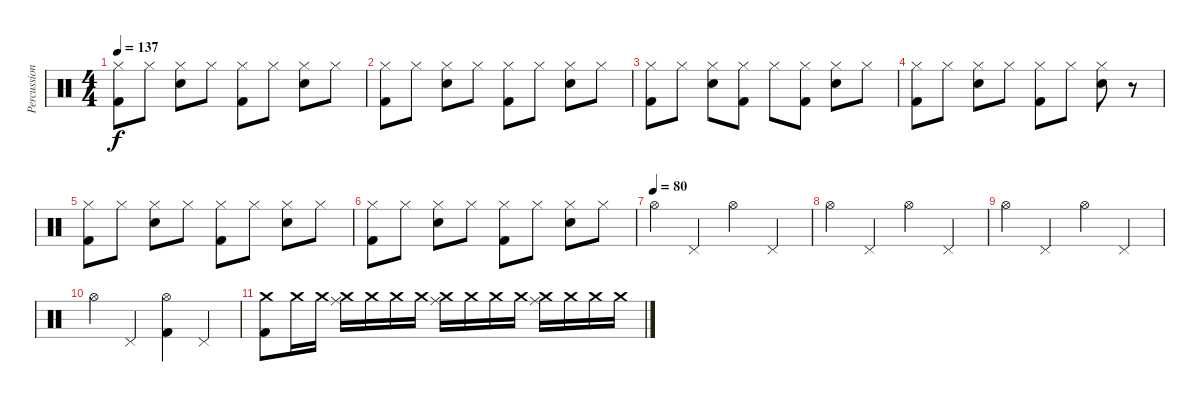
\track ("Percussions" "Percussion") {instrument percussion}
\staff {score}
\articulation defaults
\ts (4 4)
\tempo 137
\clef neutral
\ks c
("Hi-Hat (closed)" "Kick (hit) 2").8{dy f} "Hi-Hat (closed)".8 ("Hi-Hat (closed)" "Electric Snare (hit)").8 "Hi-Hat (closed)".8 ("Hi-Hat (closed)" "Kick (hit) 2").8 "Hi-Hat (closed)".8 ("Hi-Hat (closed)" "Electric Snare (hit)").8 "Hi-Hat (closed)".8 |
("Hi-Hat (closed)" "Kick (hit) 2").8 "Hi-Hat (closed)".8 ("Hi-Hat (closed)" "Electric Snare (hit)").8 "Hi-Hat (closed)".8 ("Hi-Hat (closed)" "Kick (hit) 2").8 "Hi-Hat (closed)".8 ("Hi-Hat (closed)" "Electric Snare (hit)").8 "Hi-Hat (closed)".8 |
("Hi-Hat (closed)" "Kick (hit) 2").8 "Hi-Hat (closed)".8 ("Hi-Hat (closed)" "Electric Snare (hit)").8 ("Hi-Hat (closed)" "Kick (hit) 2").8 "Hi-Hat (closed)".8 ("Hi-Hat (closed)" "Kick (hit) 2").8 ("Hi-Hat (closed)" "Electric Snare (hit)").8 "Hi-Hat (closed)".8 |
("Hi-Hat (closed)" "Kick (hit) 2").8 "Hi-Hat (closed)".8 ("Hi-Hat (closed)" "Electric Snare (hit)").8 "Hi-Hat (closed)".8 ("Hi-Hat (closed)" "Kick (hit) 2").8 "Hi-Hat (closed)".8 ("Hi-Hat (closed)" "Electric Snare (hit)").8 r.8 |
("Hi-Hat (closed)" "Kick (hit) 2").8 "Hi-Hat (closed)".8 ("Hi-Hat (closed)" "Electric Snare (hit)").8 "Hi-Hat (closed)".8 ("Hi-Hat (closed)" "Kick (hit) 2").8 "Hi-Hat (closed)".8 ("Hi-Hat (closed)" "Electric Snare (hit)").8 "Hi-Hat (closed)".8 |
("Hi-Hat (closed)" "Kick (hit) 2").8 "Hi-Hat (closed)".8 ("Hi-Hat (closed)" "Electric Snare (hit)").8 "Hi-Hat (closed)".8 ("Hi-Hat (closed)" "Kick (hit) 2").8 "Hi-Hat (closed)".8 ("Hi-Hat (closed)" "Electric Snare (hit)").8 "Hi-Hat (closed)".8 |
\tempo (80)
"Hi-Hat (open)".4 "Pedal Hi-Hat (hit)".4 "Hi-Hat (open)".4 "Pedal Hi-Hat (hit)".4 |
"Hi-Hat (open)".4 "Pedal Hi-Hat (hit)".4 "Hi-Hat (open)".4 "Pedal Hi-Hat (hit)".4 |
"Hi-Hat (open)".4 "Pedal Hi-Hat (hit)".4 "Hi-Hat (open)".4 "Pedal Hi-Hat (hit)".4 |
"Hi-Hat (open)".4 "Pedal Hi-Hat (hit)".4 ("Hi-Hat (open)" "Kick (hit) 2").4 "Pedal Hi-Hat (hit)".4 |
("Crash medium (hit)" "Kick (hit) 2").8 "Crash medium (hit)".16 "Crash medium (hit)".16 ("Crash medium (hit)" "Ride (middle)").16 "Crash medium (hit)".16 "Crash medium (hit)".16 "Crash medium (hit)".16 ("Crash medium (hit)" "Ride (middle)").16 "Crash medium (hit)".16 "Crash medium (hit)".16 "Crash medium (hit)".16 ("Crash medium (hit)" "Ride (middle)").16 "Crash medium (hit)".16 "Crash medium (hit)".16 "Crash medium (hit)".16
